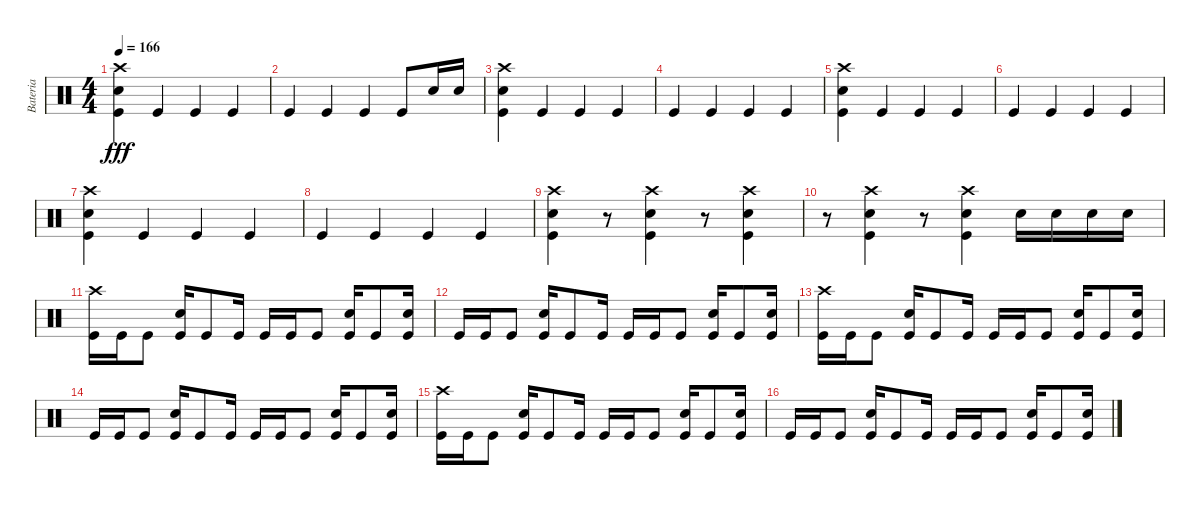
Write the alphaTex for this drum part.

\track ("Bateria" "Bateria") {instrument percussion}
\staff {score}
\articulation defaults
\ts (4 4)
\tempo 166
\clef neutral
\ks c
("Kick (hit)" "Snare (hit) 2" "Crash high (hit)").4{dy fff} "Kick (hit)".4 "Kick (hit)".4 "Kick (hit)".4 |
"Kick (hit)".4 "Kick (hit)".4 "Kick (hit)".4 "Kick (hit)".8 "Snare (hit) 2".16 "Snare (hit) 2".16 |
("Kick (hit)" "Snare (hit) 2" "Crash high (hit)").4 "Kick (hit)".4 "Kick (hit)".4 "Kick (hit)".4 |
"Kick (hit)".4 "Kick (hit)".4 "Kick (hit)".4 "Kick (hit)".4 |
("Kick (hit)" "Snare (hit) 2" "Crash high (hit)").4 "Kick (hit)".4 "Kick (hit)".4 "Kick (hit)".4 |
"Kick (hit)".4 "Kick (hit)".4 "Kick (hit)".4 "Kick (hit)".4 |
("Kick (hit)" "Snare (hit) 2" "Crash high (hit)").4 "Kick (hit)".4 "Kick (hit)".4 "Kick (hit)".4 |
"Kick (hit)".4 "Kick (hit)".4 "Kick (hit)".4 "Kick (hit)".4 |
("Kick (hit)" "Snare (hit) 2" "Crash high (hit)").4 r.8 ("Kick (hit)" "Snare (hit) 2" "Crash high (hit)").4 r.8 ("Kick (hit)" "Crash high (hit)" "Snare (hit) 2").4 |
r.8 ("Kick (hit)" "Crash high (hit)" "Snare (hit) 2").4 r.8 ("Kick (hit)" "Crash high (hit)" "Snare (hit) 2").4 "Snare (hit) 2".16 "Snare (hit) 2".16 "Snare (hit) 2".16 "Snare (hit) 2".16 |
("Kick (hit)" "Crash high (hit)").16 "Kick (hit)".16 "Kick (hit)".8 ("Kick (hit)" "Snare (hit) 2").16 "Kick (hit)".8 "Kick (hit)".16 "Kick (hit)".16 "Kick (hit)".16 "Kick (hit)".8 ("Snare (hit) 2" "Kick (hit)").16 "Kick (hit)".8 ("Snare (hit) 2" "Kick (hit)").16 |
"Kick (hit)".16 "Kick (hit)".16 "Kick (hit)".8 ("Kick (hit)" "Snare (hit) 2").16 "Kick (hit)".8 "Kick (hit)".16 "Kick (hit)".16 "Kick (hit)".16 "Kick (hit)".8 ("Snare (hit) 2" "Kick (hit)").16 "Kick (hit)".8 ("Kick (hit)" "Snare (hit) 2").16 |
("Kick (hit)" "Crash high (hit)").16 "Kick (hit)".16 "Kick (hit)".8 ("Kick (hit)" "Snare (hit) 2").16 "Kick (hit)".8 "Kick (hit)".16 "Kick (hit)".16 "Kick (hit)".16 "Kick (hit)".8 ("Snare (hit) 2" "Kick (hit)").16 "Kick (hit)".8 ("Kick (hit)" "Snare (hit) 2").16 |
"Kick (hit)".16 "Kick (hit)".16 "Kick (hit)".8 ("Kick (hit)" "Snare (hit) 2").16 "Kick (hit)".8 "Kick (hit)".16 "Kick (hit)".16 "Kick (hit)".16 "Kick (hit)".8 ("Snare (hit) 2" "Kick (hit)").16 "Kick (hit)".8 ("Kick (hit)" "Snare (hit) 2").16 |
("Kick (hit)" "Crash high (hit)").16 "Kick (hit)".16 "Kick (hit)".8 ("Kick (hit)" "Snare (hit) 2").16 "Kick (hit)".8 "Kick (hit)".16 "Kick (hit)".16 "Kick (hit)".16 "Kick (hit)".8 ("Snare (hit) 2" "Kick (hit)").16 "Kick (hit)".8 ("Snare (hit) 2" "Kick (hit)").16 |
"Kick (hit)".16 "Kick (hit)".16 "Kick (hit)".8 ("Kick (hit)" "Snare (hit) 2").16 "Kick (hit)".8 "Kick (hit)".16 "Kick (hit)".16 "Kick (hit)".16 "Kick (hit)".8 ("Snare (hit) 2" "Kick (hit)").16 "Kick (hit)".8 ("Kick (hit)" "Snare (hit) 2").16
